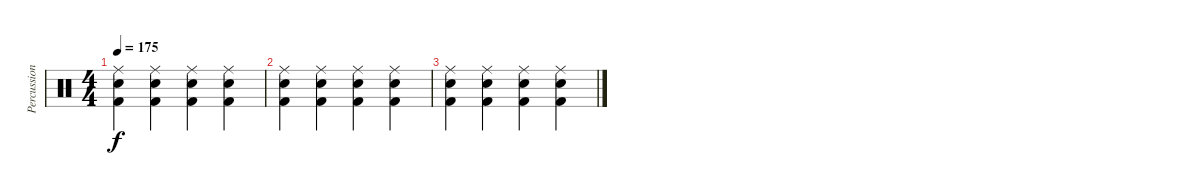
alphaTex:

\track ("Percussions" "Percussion") {instrument percussion}
\staff {score}
\articulation defaults
\ts (4 4)
\tempo 175
\clef neutral
\ks c
("Ride (middle)" "Snare (hit) 2" "Kick (hit) 2").4{dy f} ("Ride (middle)" "Snare (hit) 2" "Kick (hit) 2").4 ("Ride (middle)" "Snare (hit) 2" "Kick (hit) 2").4 ("Ride (middle)" "Snare (hit) 2" "Kick (hit) 2").4 |
("Ride (middle)" "Snare (hit) 2" "Kick (hit) 2").4 ("Ride (middle)" "Snare (hit) 2" "Kick (hit) 2").4 ("Ride (middle)" "Snare (hit) 2" "Kick (hit) 2").4 ("Ride (middle)" "Snare (hit) 2" "Kick (hit) 2").4 |
("Ride (middle)" "Snare (hit) 2" "Kick (hit) 2").4 ("Ride (middle)" "Snare (hit) 2" "Kick (hit) 2").4 ("Ride (middle)" "Snare (hit) 2" "Kick (hit) 2").4 ("Ride (middle)" "Snare (hit) 2" "Kick (hit) 2").4
